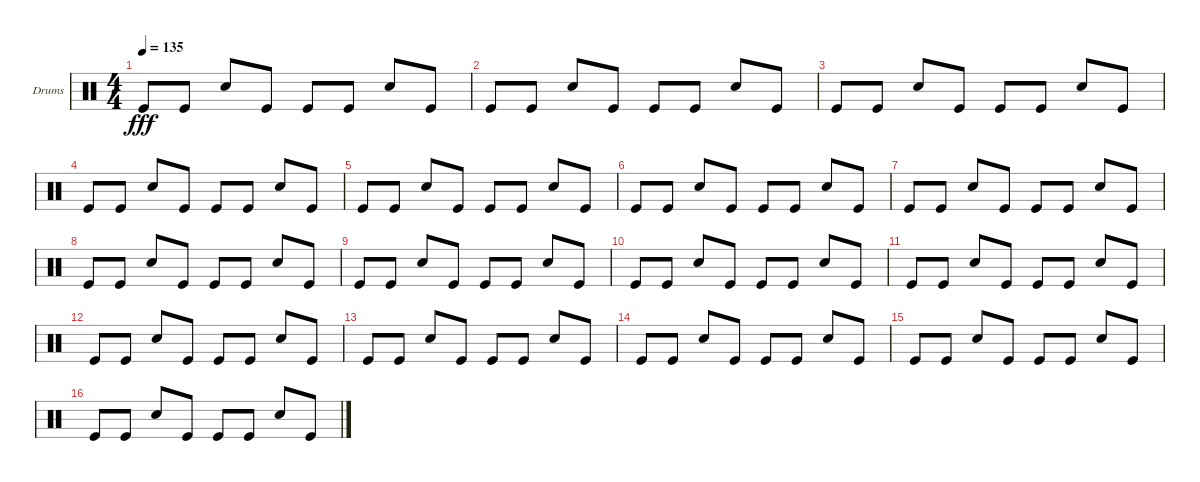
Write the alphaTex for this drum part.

\defaultSystemsLayout 4
\bracketExtendMode groupsimilarinstruments
\firstSystemTrackNameOrientation horizontal
\otherSystemsTrackNameOrientation horizontal
\track ("Helders" "Drums") {instrument percussion}
\staff {score}
\articulation defaults
\ts (4 4)
\tempo 135
\clef neutral
\ks c "Kick (hit)".8{dy fff} "Kick (hit)".8 "Snare (hit) 2".8 "Kick (hit)".8 "Kick (hit)".8 "Kick (hit)".8 "Snare (hit) 2".8 "Kick (hit)".8
|
"Kick (hit)".8 "Kick (hit)".8 "Snare (hit) 2".8 "Kick (hit)".8 "Kick (hit)".8 "Kick (hit)".8 "Snare (hit) 2".8 "Kick (hit)".8 |
"Kick (hit)".8 "Kick (hit)".8 "Snare (hit) 2".8 "Kick (hit)".8 "Kick (hit)".8 "Kick (hit)".8 "Snare (hit) 2".8 "Kick (hit)".8 |
"Kick (hit)".8 "Kick (hit)".8 "Snare (hit) 2".8 "Kick (hit)".8 "Kick (hit)".8 "Kick (hit)".8 "Snare (hit) 2".8 "Kick (hit)".8 |
"Kick (hit)".8 "Kick (hit)".8 "Snare (hit) 2".8 "Kick (hit)".8 "Kick (hit)".8 "Kick (hit)".8 "Snare (hit) 2".8 "Kick (hit)".8 |
"Kick (hit)".8 "Kick (hit)".8 "Snare (hit) 2".8 "Kick (hit)".8 "Kick (hit)".8 "Kick (hit)".8 "Snare (hit) 2".8 "Kick (hit)".8 |
"Kick (hit)".8 "Kick (hit)".8 "Snare (hit) 2".8 "Kick (hit)".8 "Kick (hit)".8 "Kick (hit)".8 "Snare (hit) 2".8 "Kick (hit)".8 |
"Kick (hit)".8 "Kick (hit)".8 "Snare (hit) 2".8 "Kick (hit)".8 "Kick (hit)".8 "Kick (hit)".8 "Snare (hit) 2".8 "Kick (hit)".8 |
"Kick (hit)".8 "Kick (hit)".8 "Snare (hit) 2".8 "Kick (hit)".8 "Kick (hit)".8 "Kick (hit)".8 "Snare (hit) 2".8 "Kick (hit)".8 |
"Kick (hit)".8 "Kick (hit)".8 "Snare (hit) 2".8 "Kick (hit)".8 "Kick (hit)".8 "Kick (hit)".8 "Snare (hit) 2".8 "Kick (hit)".8 |
"Kick (hit)".8 "Kick (hit)".8 "Snare (hit) 2".8 "Kick (hit)".8 "Kick (hit)".8 "Kick (hit)".8 "Snare (hit) 2".8 "Kick (hit)".8 |
"Kick (hit)".8 "Kick (hit)".8 "Snare (hit) 2".8 "Kick (hit)".8 "Kick (hit)".8 "Kick (hit)".8 "Snare (hit) 2".8 "Kick (hit)".8 |
"Kick (hit)".8 "Kick (hit)".8 "Snare (hit) 2".8 "Kick (hit)".8 "Kick (hit)".8 "Kick (hit)".8 "Snare (hit) 2".8 "Kick (hit)".8 |
"Kick (hit)".8 "Kick (hit)".8 "Snare (hit) 2".8 "Kick (hit)".8 "Kick (hit)".8 "Kick (hit)".8 "Snare (hit) 2".8 "Kick (hit)".8 |
"Kick (hit)".8 "Kick (hit)".8 "Snare (hit) 2".8 "Kick (hit)".8 "Kick (hit)".8 "Kick (hit)".8 "Snare (hit) 2".8 "Kick (hit)".8 |
"Kick (hit)".8 "Kick (hit)".8 "Snare (hit) 2".8 "Kick (hit)".8 "Kick (hit)".8 "Kick (hit)".8 "Snare (hit) 2".8 "Kick (hit)".8
